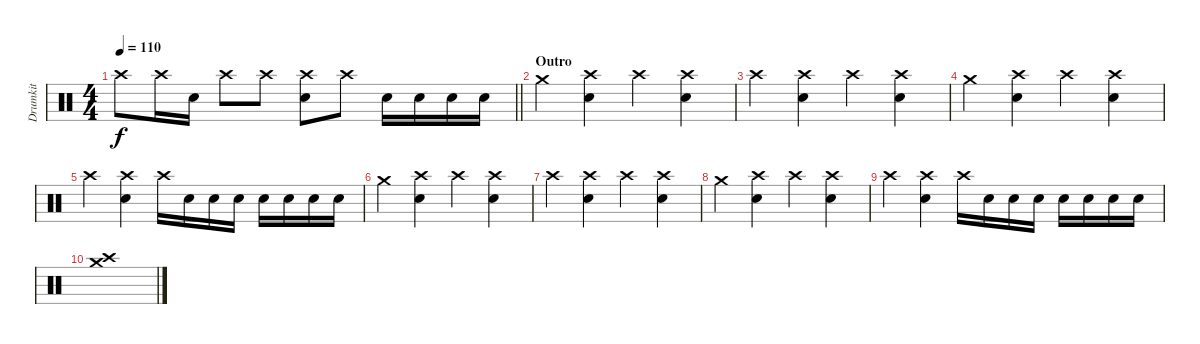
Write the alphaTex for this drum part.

\track ("Drumkit" "Drumkit") {instrument percussion}
\staff {score}
\articulation defaults
\ts (4 4)
\tempo 110
\clef neutral
\barLineRight lightlight
\ks c "Crash high (hit)".8{dy f} "Crash high (hit)".16 "Electric Snare (hit)".16 "Crash high (hit)".8 "Crash high (hit)".8
("Crash high (hit)" "Electric Snare (hit)").8 "Crash high (hit)".8 "Electric Snare (hit)".16 "Electric Snare (hit)".16 "Electric Snare (hit)".16 "Electric Snare (hit)".16 |
\section ("" "Outro")
"Crash medium (hit)".4 ("Crash high (hit)" "Electric Snare (hit)").4 "Crash high (hit)".4 ("Crash high (hit)" "Electric Snare (hit)").4 |
"Crash high (hit)".4 ("Crash high (hit)" "Electric Snare (hit)").4 "Crash high (hit)".4 ("Crash high (hit)" "Electric Snare (hit)").4 |
"Crash medium (hit)".4 ("Crash high (hit)" "Electric Snare (hit)").4 "Crash high (hit)".4 ("Crash high (hit)" "Electric Snare (hit)").4 |
"Crash high (hit)".4 ("Crash high (hit)" "Electric Snare (hit)").4 "Crash high (hit)".16 "Electric Snare (hit)".16 "Electric Snare (hit)".16 "Electric Snare (hit)".16 "Electric Snare (hit)".16 "Electric Snare (hit)".16 "Electric Snare (hit)".16 "Electric Snare (hit)".16 |
"Crash medium (hit)".4 ("Crash high (hit)" "Electric Snare (hit)").4 "Crash high (hit)".4 ("Crash high (hit)" "Electric Snare (hit)").4 |
"Crash high (hit)".4 ("Crash high (hit)" "Electric Snare (hit)").4 "Crash high (hit)".4 ("Crash high (hit)" "Electric Snare (hit)").4 |
"Crash medium (hit)".4 ("Crash high (hit)" "Electric Snare (hit)").4 "Crash high (hit)".4 ("Crash high (hit)" "Electric Snare (hit)").4 |
"Crash high (hit)".4 ("Crash high (hit)" "Electric Snare (hit)").4 "Crash high (hit)".16 "Electric Snare (hit)".16 "Electric Snare (hit)".16 "Electric Snare (hit)".16 "Electric Snare (hit)".16 "Electric Snare (hit)".16 "Electric Snare (hit)".16 "Electric Snare (hit)".16 |
("Crash medium (hit)" "Crash high (hit)").1
